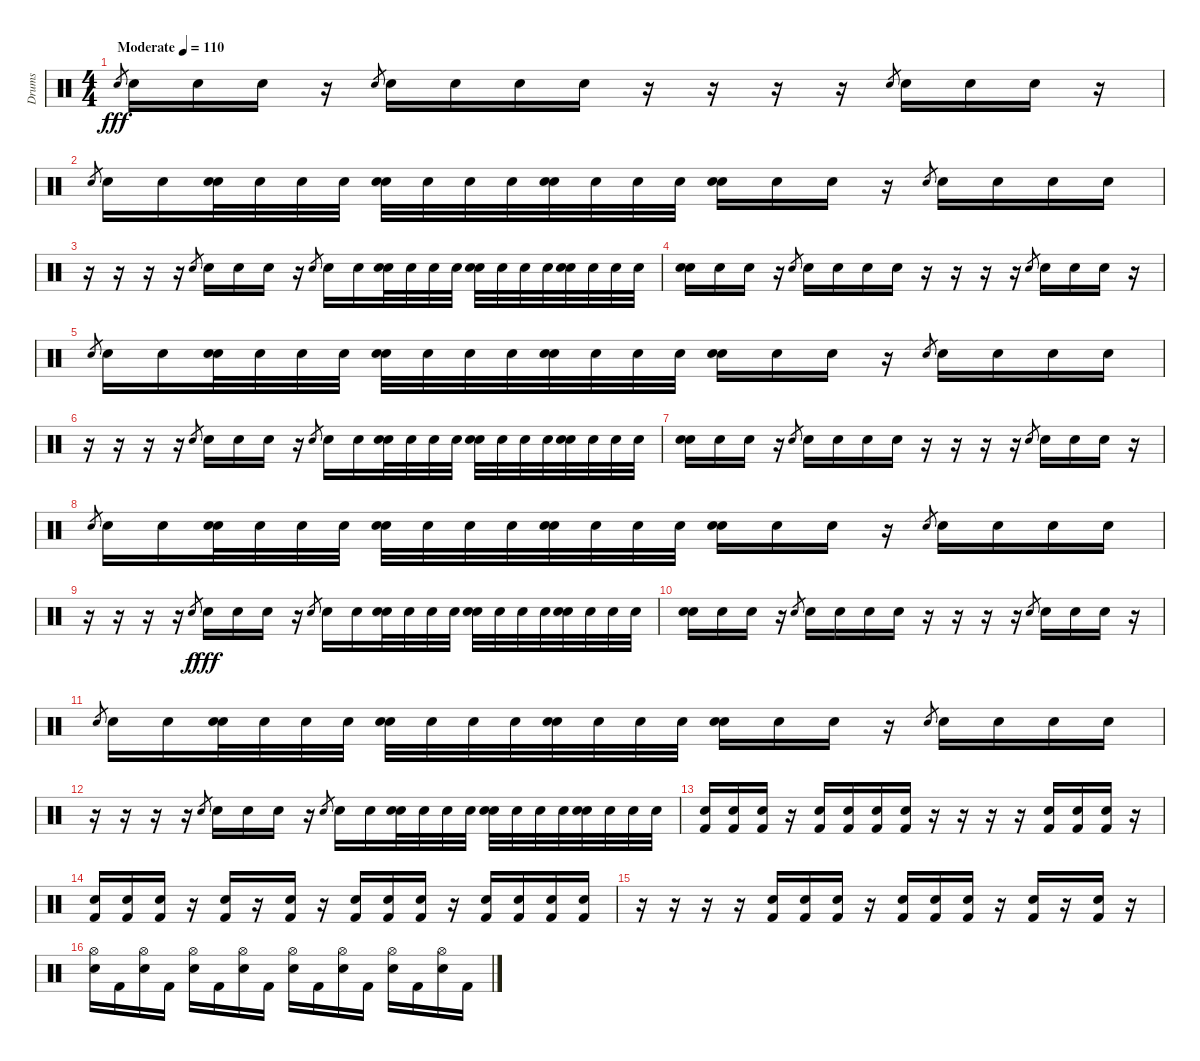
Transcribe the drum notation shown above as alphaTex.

\track ("Drums" "Drums") {instrument percussion}
\staff {score}
\articulation defaults
\ts (4 4)
\tempo (110 "Moderate")
\clef neutral
\ks c "Snare (hit) 2".8{gr dy fff} "Snare (hit) 2".16{volume 6} "Snare (hit) 2".16{volume 8} "Snare (hit) 2".16
r.16 "Snare (hit) 2".8{gr} "Snare (hit) 2".16 "Snare (hit) 2".16 "Snare (hit) 2".16 "Snare (hit) 2".16 r.16 r.16 r.16 r.16 "Snare (hit) 2".8{gr} "Snare (hit) 2".16 "Snare (hit) 2".16 "Snare (hit) 2".16 r.16 |
"Snare (hit) 2".8{gr} "Snare (hit) 2".16 "Snare (hit) 2".16 ("Electric Snare (hit)" "Snare (hit) 2").32 "Electric Snare (hit)".32 "Electric Snare (hit)".32 "Electric Snare (hit)".32 ("Electric Snare (hit)" "Snare (hit) 2").32 "Electric Snare (hit)".32 "Electric Snare (hit)".32 "Electric Snare (hit)".32 ("Electric Snare (hit)" "Snare (hit) 2").32 "Electric Snare (hit)".32 "Electric Snare (hit)".32 "Electric Snare (hit)".32 ("Electric Snare (hit)" "Snare (hit) 2").16 "Snare (hit) 2".16 "Snare (hit) 2".16 r.16 "Snare (hit) 2".8{gr} "Snare (hit) 2".16 "Snare (hit) 2".16 "Snare (hit) 2".16 "Snare (hit) 2".16 |
r.16 r.16 r.16 r.16 "Snare (hit) 2".8{gr} "Snare (hit) 2".16 "Snare (hit) 2".16 "Snare (hit) 2".16 r.16 "Snare (hit) 2".8{gr} "Snare (hit) 2".16 "Snare (hit) 2".16 ("Electric Snare (hit)" "Snare (hit) 2").32 "Electric Snare (hit)".32 "Electric Snare (hit)".32 "Electric Snare (hit)".32 ("Electric Snare (hit)" "Snare (hit) 2").32 "Electric Snare (hit)".32 "Electric Snare (hit)".32 "Electric Snare (hit)".32 ("Electric Snare (hit)" "Snare (hit) 2").32 "Electric Snare (hit)".32 "Electric Snare (hit)".32 "Electric Snare (hit)".32 |
("Electric Snare (hit)" "Snare (hit) 2").16 "Snare (hit) 2".16 "Snare (hit) 2".16 r.16 "Snare (hit) 2".8{gr} "Snare (hit) 2".16 "Snare (hit) 2".16 "Snare (hit) 2".16 "Snare (hit) 2".16 r.16 r.16 r.16 r.16 "Snare (hit) 2".8{gr} "Snare (hit) 2".16 "Snare (hit) 2".16 "Snare (hit) 2".16 r.16 |
"Snare (hit) 2".8{gr} "Snare (hit) 2".16 "Snare (hit) 2".16 ("Electric Snare (hit)" "Snare (hit) 2").32{volume 11} "Electric Snare (hit)".32 "Electric Snare (hit)".32 "Electric Snare (hit)".32 ("Electric Snare (hit)" "Snare (hit) 2").32 "Electric Snare (hit)".32 "Electric Snare (hit)".32 "Electric Snare (hit)".32 ("Electric Snare (hit)" "Snare (hit) 2").32 "Electric Snare (hit)".32 "Electric Snare (hit)".32 "Electric Snare (hit)".32 ("Electric Snare (hit)" "Snare (hit) 2").16 "Snare (hit) 2".16 "Snare (hit) 2".16 r.16 "Snare (hit) 2".8{gr} "Snare (hit) 2".16 "Snare (hit) 2".16 "Snare (hit) 2".16 "Snare (hit) 2".16 |
r.16 r.16 r.16 r.16 "Snare (hit) 2".8{gr} "Snare (hit) 2".16 "Snare (hit) 2".16 "Snare (hit) 2".16 r.16 "Snare (hit) 2".8{gr} "Snare (hit) 2".16 "Snare (hit) 2".16 ("Electric Snare (hit)" "Snare (hit) 2").32 "Electric Snare (hit)".32 "Electric Snare (hit)".32 "Electric Snare (hit)".32 ("Electric Snare (hit)" "Snare (hit) 2").32 "Electric Snare (hit)".32 "Electric Snare (hit)".32 "Electric Snare (hit)".32 ("Electric Snare (hit)" "Snare (hit) 2").32 "Electric Snare (hit)".32 "Electric Snare (hit)".32 "Electric Snare (hit)".32 |
("Electric Snare (hit)" "Snare (hit) 2").16 "Snare (hit) 2".16 "Snare (hit) 2".16 r.16 "Snare (hit) 2".8{gr} "Snare (hit) 2".16 "Snare (hit) 2".16 "Snare (hit) 2".16 "Snare (hit) 2".16 r.16 r.16 r.16 r.16 "Snare (hit) 2".8{gr} "Snare (hit) 2".16 "Snare (hit) 2".16 "Snare (hit) 2".16 r.16 |
"Snare (hit) 2".8{gr} "Snare (hit) 2".16 "Snare (hit) 2".16 ("Electric Snare (hit)" "Snare (hit) 2").32 "Electric Snare (hit)".32 "Electric Snare (hit)".32 "Electric Snare (hit)".32 ("Electric Snare (hit)" "Snare (hit) 2").32 "Electric Snare (hit)".32 "Electric Snare (hit)".32 "Electric Snare (hit)".32 ("Electric Snare (hit)" "Snare (hit) 2").32 "Electric Snare (hit)".32 "Electric Snare (hit)".32 "Electric Snare (hit)".32 ("Electric Snare (hit)" "Snare (hit) 2").16 "Snare (hit) 2".16 "Snare (hit) 2".16 r.16 "Snare (hit) 2".8{gr} "Snare (hit) 2".16 "Snare (hit) 2".16 "Snare (hit) 2".16 "Snare (hit) 2".16 |
r.16 r.16 r.16 r.16{volume 16} "Snare (hit) 2".8{gr dy f} "Snare (hit) 2".16{dy fff} "Snare (hit) 2".16 "Snare (hit) 2".16 r.16 "Snare (hit) 2".8{gr} "Snare (hit) 2".16 "Snare (hit) 2".16 ("Electric Snare (hit)" "Snare (hit) 2").32 "Electric Snare (hit)".32 "Electric Snare (hit)".32 "Electric Snare (hit)".32 ("Electric Snare (hit)" "Snare (hit) 2").32 "Electric Snare (hit)".32 "Electric Snare (hit)".32 "Electric Snare (hit)".32 ("Electric Snare (hit)" "Snare (hit) 2").32 "Electric Snare (hit)".32 "Electric Snare (hit)".32 "Electric Snare (hit)".32 |
("Electric Snare (hit)" "Snare (hit) 2").16 "Snare (hit) 2".16 "Snare (hit) 2".16 r.16 "Snare (hit) 2".8{gr} "Snare (hit) 2".16 "Snare (hit) 2".16 "Snare (hit) 2".16 "Snare (hit) 2".16 r.16 r.16 r.16 r.16 "Snare (hit) 2".8{gr} "Snare (hit) 2".16 "Snare (hit) 2".16 "Snare (hit) 2".16 r.16 |
"Snare (hit) 2".8{gr} "Snare (hit) 2".16 "Snare (hit) 2".16 ("Electric Snare (hit)" "Snare (hit) 2").32 "Electric Snare (hit)".32 "Electric Snare (hit)".32 "Electric Snare (hit)".32 ("Electric Snare (hit)" "Snare (hit) 2").32 "Electric Snare (hit)".32 "Electric Snare (hit)".32 "Electric Snare (hit)".32 ("Electric Snare (hit)" "Snare (hit) 2").32 "Electric Snare (hit)".32 "Electric Snare (hit)".32 "Electric Snare (hit)".32 ("Electric Snare (hit)" "Snare (hit) 2").16 "Snare (hit) 2".16 "Snare (hit) 2".16 r.16 "Snare (hit) 2".8{gr} "Snare (hit) 2".16 "Snare (hit) 2".16 "Snare (hit) 2".16 "Snare (hit) 2".16 |
r.16 r.16 r.16 r.16 "Snare (hit) 2".8{gr} "Snare (hit) 2".16 "Snare (hit) 2".16 "Snare (hit) 2".16 r.16 "Snare (hit) 2".8{gr} "Snare (hit) 2".16 "Snare (hit) 2".16 ("Electric Snare (hit)" "Snare (hit) 2").32 "Electric Snare (hit)".32 "Electric Snare (hit)".32 "Electric Snare (hit)".32 ("Electric Snare (hit)" "Snare (hit) 2").32 "Electric Snare (hit)".32 "Electric Snare (hit)".32 "Electric Snare (hit)".32 ("Electric Snare (hit)" "Snare (hit) 2").32 "Electric Snare (hit)".32 "Electric Snare (hit)".32 "Electric Snare (hit)".32 |
("Snare (hit) 2" "Kick (hit) 2").16 ("Snare (hit) 2" "Kick (hit) 2").16 ("Snare (hit) 2" "Kick (hit) 2").16 r.16 ("Snare (hit) 2" "Kick (hit) 2").16 ("Snare (hit) 2" "Kick (hit) 2").16 ("Snare (hit) 2" "Kick (hit) 2").16 ("Snare (hit) 2" "Kick (hit) 2").16 r.16 r.16 r.16 r.16 ("Snare (hit) 2" "Kick (hit) 2").16 ("Snare (hit) 2" "Kick (hit) 2").16 ("Snare (hit) 2" "Kick (hit) 2").16 r.16 |
("Snare (hit) 2" "Kick (hit) 2").16 ("Snare (hit) 2" "Kick (hit) 2").16 ("Snare (hit) 2" "Kick (hit) 2").16 r.16 ("Snare (hit) 2" "Kick (hit) 2").16 r.16 ("Snare (hit) 2" "Kick (hit) 2").16 r.16 ("Snare (hit) 2" "Kick (hit) 2").16 ("Snare (hit) 2" "Kick (hit) 2").16 ("Snare (hit) 2" "Kick (hit) 2").16 r.16 ("Snare (hit) 2" "Kick (hit) 2").16 ("Snare (hit) 2" "Kick (hit) 2").16 ("Snare (hit) 2" "Kick (hit) 2").16 ("Snare (hit) 2" "Kick (hit) 2").16 |
r.16 r.16 r.16 r.16 ("Snare (hit) 2" "Kick (hit) 2").16 ("Snare (hit) 2" "Kick (hit) 2").16 ("Snare (hit) 2" "Kick (hit) 2").16 r.16 ("Snare (hit) 2" "Kick (hit) 2").16 ("Snare (hit) 2" "Kick (hit) 2").16 ("Snare (hit) 2" "Kick (hit) 2").16 r.16 ("Snare (hit) 2" "Kick (hit) 2").16 r.16 ("Snare (hit) 2" "Kick (hit) 2").16 r.16 |
("Hi-Hat (open)" "Snare (hit) 2").16 "Kick (hit) 2".16 ("Hi-Hat (open)" "Snare (hit) 2").16 "Kick (hit) 2".16 ("Hi-Hat (open)" "Snare (hit) 2").16 "Kick (hit) 2".16 ("Hi-Hat (open)" "Snare (hit) 2").16 "Kick (hit) 2".16 ("Hi-Hat (open)" "Snare (hit) 2").16 "Kick (hit) 2".16 ("Hi-Hat (open)" "Snare (hit) 2").16 "Kick (hit) 2".16 ("Hi-Hat (open)" "Snare (hit) 2").16 "Kick (hit) 2".16 ("Hi-Hat (open)" "Snare (hit) 2").16 "Kick (hit) 2".16
